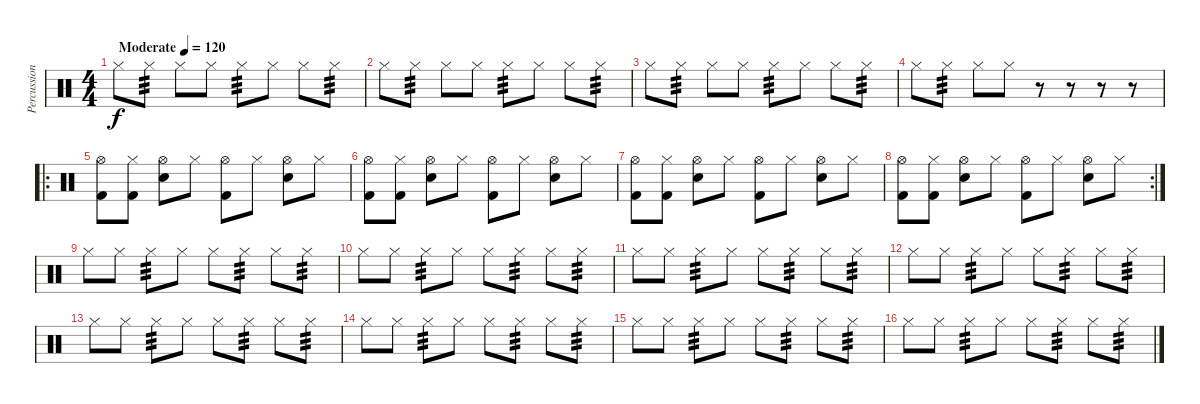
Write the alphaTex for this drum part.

\track ("Percussioni" "Percussion") {instrument percussion}
\staff {score}
\articulation defaults
\ts (4 4)
\tempo (120 "Moderate")
\clef neutral
\ks c "Hi-Hat (closed)".8{dy f} "Hi-Hat (closed)".8{tp 3} "Hi-Hat (closed)".8 "Hi-Hat (closed)".8 "Hi-Hat (closed)".8{tp 3} "Hi-Hat (closed)".8 "Hi-Hat (closed)".8 "Hi-Hat (closed)".8{tp 3}
|
"Hi-Hat (closed)".8 "Hi-Hat (closed)".8{tp 3} "Hi-Hat (closed)".8 "Hi-Hat (closed)".8 "Hi-Hat (closed)".8{tp 3} "Hi-Hat (closed)".8 "Hi-Hat (closed)".8 "Hi-Hat (closed)".8{tp 3} |
"Hi-Hat (closed)".8 "Hi-Hat (closed)".8{tp 3} "Hi-Hat (closed)".8 "Hi-Hat (closed)".8 "Hi-Hat (closed)".8{tp 3} "Hi-Hat (closed)".8 "Hi-Hat (closed)".8 "Hi-Hat (closed)".8{tp 3} |
"Hi-Hat (closed)".8 "Hi-Hat (closed)".8{tp 3} "Hi-Hat (closed)".8 "Hi-Hat (closed)".8 r.8 r.8 r.8 r.8 |
\ro
("Kick (hit) 2" "Hi-Hat (open)").8 ("Kick (hit) 2" "Hi-Hat (closed)").8 ("Electric Snare (hit)" "Hi-Hat (open)").8 "Hi-Hat (closed)".8 ("Kick (hit) 2" "Hi-Hat (open)").8 "Hi-Hat (closed)".8 ("Electric Snare (hit)" "Hi-Hat (open)").8 "Hi-Hat (closed)".8 |
("Kick (hit) 2" "Hi-Hat (open)").8 ("Kick (hit) 2" "Hi-Hat (closed)").8 ("Electric Snare (hit)" "Hi-Hat (open)").8 "Hi-Hat (closed)".8 ("Kick (hit) 2" "Hi-Hat (open)").8 "Hi-Hat (closed)".8 ("Electric Snare (hit)" "Hi-Hat (open)").8 "Hi-Hat (closed)".8 |
("Kick (hit) 2" "Hi-Hat (open)").8 ("Kick (hit) 2" "Hi-Hat (closed)").8 ("Electric Snare (hit)" "Hi-Hat (open)").8 "Hi-Hat (closed)".8 ("Kick (hit) 2" "Hi-Hat (open)").8 "Hi-Hat (closed)".8 ("Electric Snare (hit)" "Hi-Hat (open)").8 "Hi-Hat (closed)".8 |
\rc 2
("Kick (hit) 2" "Hi-Hat (open)").8 ("Kick (hit) 2" "Hi-Hat (closed)").8 ("Electric Snare (hit)" "Hi-Hat (open)").8 "Hi-Hat (closed)".8 ("Kick (hit) 2" "Hi-Hat (open)").8 "Hi-Hat (closed)".8 ("Electric Snare (hit)" "Hi-Hat (open)").8 "Hi-Hat (closed)".8 |
"Hi-Hat (closed)".8 "Hi-Hat (closed)".8 "Hi-Hat (closed)".8{tp 3} "Hi-Hat (closed)".8 "Hi-Hat (closed)".8 "Hi-Hat (closed)".8{tp 3} "Hi-Hat (closed)".8 "Hi-Hat (closed)".8{tp 3} |
"Hi-Hat (closed)".8 "Hi-Hat (closed)".8 "Hi-Hat (closed)".8{tp 3} "Hi-Hat (closed)".8 "Hi-Hat (closed)".8 "Hi-Hat (closed)".8{tp 3} "Hi-Hat (closed)".8 "Hi-Hat (closed)".8{tp 3} |
"Hi-Hat (closed)".8 "Hi-Hat (closed)".8 "Hi-Hat (closed)".8{tp 3} "Hi-Hat (closed)".8 "Hi-Hat (closed)".8 "Hi-Hat (closed)".8{tp 3} "Hi-Hat (closed)".8 "Hi-Hat (closed)".8{tp 3} |
"Hi-Hat (closed)".8 "Hi-Hat (closed)".8 "Hi-Hat (closed)".8{tp 3} "Hi-Hat (closed)".8 "Hi-Hat (closed)".8 "Hi-Hat (closed)".8{tp 3} "Hi-Hat (closed)".8 "Hi-Hat (closed)".8{tp 3} |
"Hi-Hat (closed)".8 "Hi-Hat (closed)".8 "Hi-Hat (closed)".8{tp 3} "Hi-Hat (closed)".8 "Hi-Hat (closed)".8 "Hi-Hat (closed)".8{tp 3} "Hi-Hat (closed)".8 "Hi-Hat (closed)".8{tp 3} |
"Hi-Hat (closed)".8 "Hi-Hat (closed)".8 "Hi-Hat (closed)".8{tp 3} "Hi-Hat (closed)".8 "Hi-Hat (closed)".8 "Hi-Hat (closed)".8{tp 3} "Hi-Hat (closed)".8 "Hi-Hat (closed)".8{tp 3} |
"Hi-Hat (closed)".8 "Hi-Hat (closed)".8 "Hi-Hat (closed)".8{tp 3} "Hi-Hat (closed)".8 "Hi-Hat (closed)".8 "Hi-Hat (closed)".8{tp 3} "Hi-Hat (closed)".8 "Hi-Hat (closed)".8{tp 3} |
"Hi-Hat (closed)".8 "Hi-Hat (closed)".8 "Hi-Hat (closed)".8{tp 3} "Hi-Hat (closed)".8 "Hi-Hat (closed)".8 "Hi-Hat (closed)".8{tp 3} "Hi-Hat (closed)".8 "Hi-Hat (closed)".8{tp 3}
